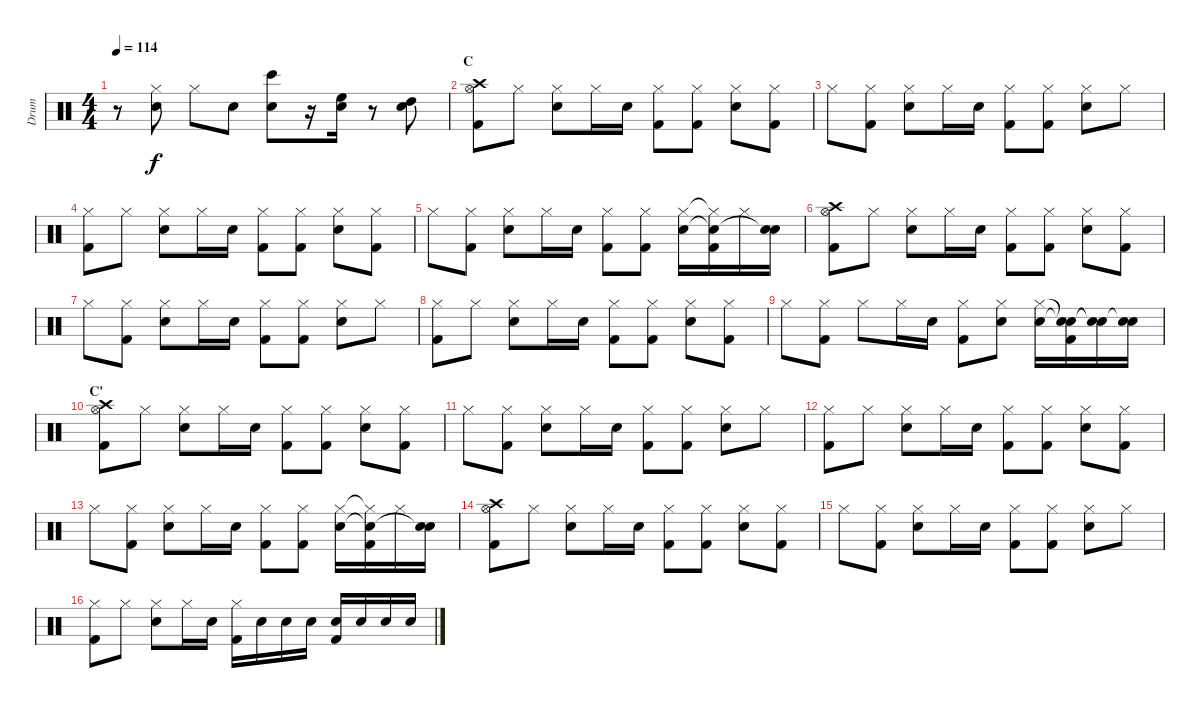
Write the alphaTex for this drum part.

\track ("Drum" "Drum") {instrument percussion}
\staff {score}
\articulation defaults
\ts (4 4)
\tempo 114
\clef neutral
\ks c
r.8{dy f} ("Hi-Hat (closed)" "Snare (hit) 2").8 "Hi-Hat (closed)".8 "Snare (hit) 2".8 ("Bongo High (hit)" "Snare (hit) 2").8 r.16 ("High Floor Tom (hit)" "Snare (hit) 2").16 r.8 ("High Tom (hit)" "Snare (hit) 2").8 |
\section ("" "C")
("Crash high (hit)" "Hi-Hat (open)" "Kick (hit) 2").8 "Hi-Hat (closed)".8 ("Hi-Hat (closed)" "Snare (hit) 2").8 "Hi-Hat (closed)".16 "Snare (hit) 2".16 ("Hi-Hat (closed)" "Kick (hit) 2").8 ("Hi-Hat (closed)" "Kick (hit) 2").8 ("Hi-Hat (closed)" "Snare (hit) 2").8 ("Hi-Hat (closed)" "Kick (hit) 2").8 |
"Hi-Hat (closed)".8 ("Hi-Hat (closed)" "Kick (hit) 2").8 ("Hi-Hat (closed)" "Snare (hit) 2").8 "Hi-Hat (closed)".16 "Snare (hit) 2".16 ("Hi-Hat (closed)" "Kick (hit) 2").8 ("Hi-Hat (closed)" "Kick (hit) 2").8 ("Hi-Hat (closed)" "Snare (hit) 2").8 "Hi-Hat (closed)".8 |
("Hi-Hat (closed)" "Kick (hit) 2").8 "Hi-Hat (closed)".8 ("Hi-Hat (closed)" "Snare (hit) 2").8 "Hi-Hat (closed)".16 "Snare (hit) 2".16 ("Hi-Hat (closed)" "Kick (hit) 2").8 ("Hi-Hat (closed)" "Kick (hit) 2").8 ("Hi-Hat (closed)" "Snare (hit) 2").8 ("Hi-Hat (closed)" "Kick (hit) 2").8 |
"Hi-Hat (closed)".8 ("Hi-Hat (closed)" "Kick (hit) 2").8 ("Hi-Hat (closed)" "Snare (hit) 2").8 "Hi-Hat (closed)".16 "Snare (hit) 2".16 ("Hi-Hat (closed)" "Kick (hit) 2").8 ("Hi-Hat (closed)" "Kick (hit) 2").8 ("Hi-Hat (closed)" "Snare (hit) 2").16 ("Hi-Hat (closed)"{t} "Snare (hit)"{t} "Kick (hit) 2").16 "Hi-Hat (closed)".16 ("Snare (hit) 2" "Snare (hit)"{t}).16 |
("Crash high (hit)" "Hi-Hat (open)" "Kick (hit) 2").8 "Hi-Hat (closed)".8 ("Hi-Hat (closed)" "Snare (hit) 2").8 "Hi-Hat (closed)".16 "Snare (hit) 2".16 ("Hi-Hat (closed)" "Kick (hit) 2").8 ("Hi-Hat (closed)" "Kick (hit) 2").8 ("Hi-Hat (closed)" "Snare (hit) 2").8 ("Hi-Hat (closed)" "Kick (hit) 2").8 |
"Hi-Hat (closed)".8 ("Hi-Hat (closed)" "Kick (hit) 2").8 ("Hi-Hat (closed)" "Snare (hit) 2").8 "Hi-Hat (closed)".16 "Snare (hit) 2".16 ("Hi-Hat (closed)" "Kick (hit) 2").8 ("Hi-Hat (closed)" "Kick (hit) 2").8 ("Hi-Hat (closed)" "Snare (hit) 2").8 "Hi-Hat (closed)".8 |
("Hi-Hat (closed)" "Kick (hit) 2").8 "Hi-Hat (closed)".8 ("Hi-Hat (closed)" "Snare (hit) 2").8 "Hi-Hat (closed)".16 "Snare (hit) 2".16 ("Hi-Hat (closed)" "Kick (hit) 2").8 ("Hi-Hat (closed)" "Kick (hit) 2").8 ("Hi-Hat (closed)" "Snare (hit) 2").8 ("Hi-Hat (closed)" "Kick (hit) 2").8 |
"Hi-Hat (closed)".8 ("Hi-Hat (closed)" "Kick (hit) 2").8 "Hi-Hat (closed)".8 "Hi-Hat (closed)".16 "Snare (hit) 2".16 ("Hi-Hat (closed)" "Kick (hit) 2").8 ("Hi-Hat (closed)" "Snare (hit) 2").8 ("Hi-Hat (closed)" "Snare (hit) 2").16 ("Snare (hit)"{t} "Snare (hit) 2"{t} "Kick (hit) 2").16 ("Snare (hit)"{t} "Snare (hit)"{t}).16 ("Snare (hit) 2" "Snare (hit)"{t}).16 |
\section ("" "C'")
("Crash high (hit)" "Hi-Hat (open)" "Kick (hit) 2").8 "Hi-Hat (closed)".8 ("Hi-Hat (closed)" "Snare (hit) 2").8 "Hi-Hat (closed)".16 "Snare (hit) 2".16 ("Hi-Hat (closed)" "Kick (hit) 2").8 ("Hi-Hat (closed)" "Kick (hit) 2").8 ("Hi-Hat (closed)" "Snare (hit) 2").8 ("Hi-Hat (closed)" "Kick (hit) 2").8 |
"Hi-Hat (closed)".8 ("Hi-Hat (closed)" "Kick (hit) 2").8 ("Hi-Hat (closed)" "Snare (hit) 2").8 "Hi-Hat (closed)".16 "Snare (hit) 2".16 ("Hi-Hat (closed)" "Kick (hit) 2").8 ("Hi-Hat (closed)" "Kick (hit) 2").8 ("Hi-Hat (closed)" "Snare (hit) 2").8 "Hi-Hat (closed)".8 |
("Hi-Hat (closed)" "Kick (hit) 2").8 "Hi-Hat (closed)".8 ("Hi-Hat (closed)" "Snare (hit) 2").8 "Hi-Hat (closed)".16 "Snare (hit) 2".16 ("Hi-Hat (closed)" "Kick (hit) 2").8 ("Hi-Hat (closed)" "Kick (hit) 2").8 ("Hi-Hat (closed)" "Snare (hit) 2").8 ("Hi-Hat (closed)" "Kick (hit) 2").8 |
"Hi-Hat (closed)".8 ("Hi-Hat (closed)" "Kick (hit) 2").8 ("Hi-Hat (closed)" "Snare (hit) 2").8 "Hi-Hat (closed)".16 "Snare (hit) 2".16 ("Hi-Hat (closed)" "Kick (hit) 2").8 ("Hi-Hat (closed)" "Kick (hit) 2").8 ("Hi-Hat (closed)" "Snare (hit) 2").16 ("Hi-Hat (closed)"{t} "Snare (hit)"{t} "Kick (hit) 2").16 "Hi-Hat (closed)".16 ("Snare (hit) 2" "Snare (hit)"{t}).16 |
("Crash high (hit)" "Hi-Hat (open)" "Kick (hit) 2").8 "Hi-Hat (closed)".8 ("Hi-Hat (closed)" "Snare (hit) 2").8 "Hi-Hat (closed)".16 "Snare (hit) 2".16 ("Hi-Hat (closed)" "Kick (hit) 2").8 ("Hi-Hat (closed)" "Kick (hit) 2").8 ("Hi-Hat (closed)" "Snare (hit) 2").8 ("Hi-Hat (closed)" "Kick (hit) 2").8 |
"Hi-Hat (closed)".8 ("Hi-Hat (closed)" "Kick (hit) 2").8 ("Hi-Hat (closed)" "Snare (hit) 2").8 "Hi-Hat (closed)".16 "Snare (hit) 2".16 ("Hi-Hat (closed)" "Kick (hit) 2").8 ("Hi-Hat (closed)" "Kick (hit) 2").8 ("Hi-Hat (closed)" "Snare (hit) 2").8 "Hi-Hat (closed)".8 |
("Hi-Hat (closed)" "Kick (hit) 2").8 "Hi-Hat (closed)".8 ("Hi-Hat (closed)" "Snare (hit) 2").8 "Hi-Hat (closed)".16 "Snare (hit) 2".16 ("Hi-Hat (closed)" "Kick (hit) 2").16 "Snare (hit) 2".16 "Snare (hit) 2".16 "Snare (hit) 2".16 ("Snare (hit) 2" "Kick (hit) 2").16 "Snare (hit) 2".16 "Snare (hit) 2".16 "Snare (hit) 2".16
